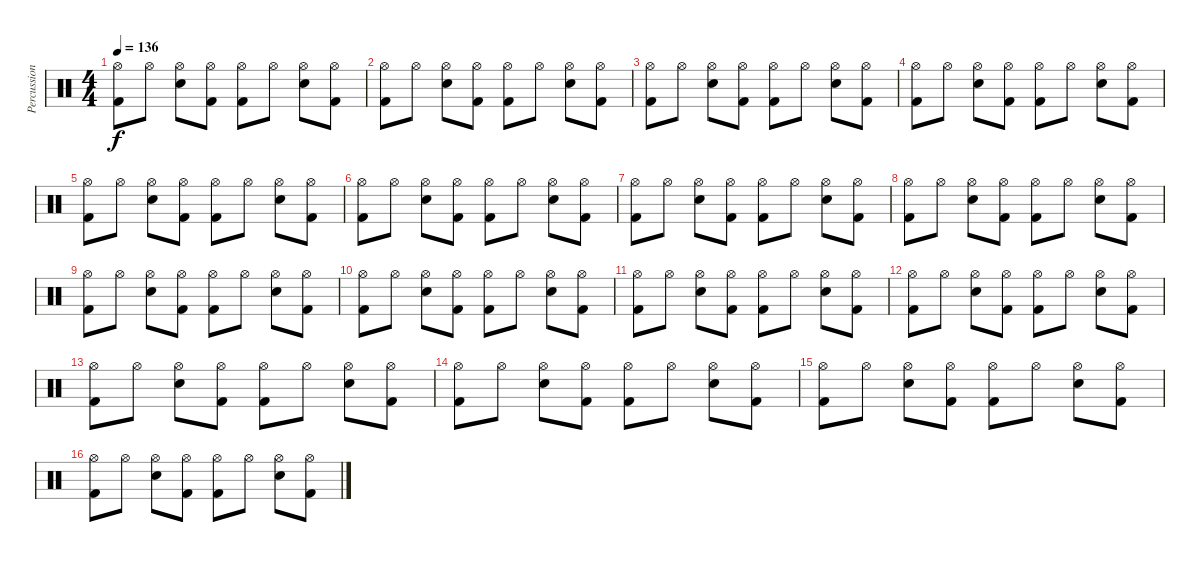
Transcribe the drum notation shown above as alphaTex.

\track ("Percussion" "Percussion") {instrument percussion}
\staff {score}
\articulation defaults
\ts (4 4)
\tempo 136
\clef neutral
\ks c
("Hi-Hat (open)" "Kick (hit) 2").8{dy f} "Hi-Hat (open)".8 ("Hi-Hat (open)" "Electric Snare (hit)").8 ("Hi-Hat (open)" "Kick (hit) 2").8 ("Hi-Hat (open)" "Kick (hit) 2").8 "Hi-Hat (open)".8 ("Hi-Hat (open)" "Electric Snare (hit)").8 ("Hi-Hat (open)" "Kick (hit) 2").8 |
("Hi-Hat (open)" "Kick (hit) 2").8 "Hi-Hat (open)".8 ("Hi-Hat (open)" "Electric Snare (hit)").8 ("Hi-Hat (open)" "Kick (hit) 2").8 ("Hi-Hat (open)" "Kick (hit) 2").8 "Hi-Hat (open)".8 ("Hi-Hat (open)" "Electric Snare (hit)").8 ("Hi-Hat (open)" "Kick (hit) 2").8 |
("Hi-Hat (open)" "Kick (hit) 2").8 "Hi-Hat (open)".8 ("Hi-Hat (open)" "Electric Snare (hit)").8 ("Hi-Hat (open)" "Kick (hit) 2").8 ("Hi-Hat (open)" "Kick (hit) 2").8 "Hi-Hat (open)".8 ("Hi-Hat (open)" "Electric Snare (hit)").8 ("Hi-Hat (open)" "Kick (hit) 2").8 |
("Hi-Hat (open)" "Kick (hit) 2").8 "Hi-Hat (open)".8 ("Hi-Hat (open)" "Electric Snare (hit)").8 ("Hi-Hat (open)" "Kick (hit) 2").8 ("Hi-Hat (open)" "Kick (hit) 2").8 "Hi-Hat (open)".8 ("Hi-Hat (open)" "Electric Snare (hit)").8 ("Hi-Hat (open)" "Kick (hit) 2").8 |
("Hi-Hat (open)" "Kick (hit) 2").8 "Hi-Hat (open)".8 ("Hi-Hat (open)" "Electric Snare (hit)").8 ("Hi-Hat (open)" "Kick (hit) 2").8 ("Hi-Hat (open)" "Kick (hit) 2").8 "Hi-Hat (open)".8 ("Hi-Hat (open)" "Electric Snare (hit)").8 ("Hi-Hat (open)" "Kick (hit) 2").8 |
("Hi-Hat (open)" "Kick (hit) 2").8 "Hi-Hat (open)".8 ("Hi-Hat (open)" "Electric Snare (hit)").8 ("Hi-Hat (open)" "Kick (hit) 2").8 ("Hi-Hat (open)" "Kick (hit) 2").8 "Hi-Hat (open)".8 ("Hi-Hat (open)" "Electric Snare (hit)").8 ("Hi-Hat (open)" "Kick (hit) 2").8 |
("Hi-Hat (open)" "Kick (hit) 2").8 "Hi-Hat (open)".8 ("Hi-Hat (open)" "Electric Snare (hit)").8 ("Hi-Hat (open)" "Kick (hit) 2").8 ("Hi-Hat (open)" "Kick (hit) 2").8 "Hi-Hat (open)".8 ("Hi-Hat (open)" "Electric Snare (hit)").8 ("Hi-Hat (open)" "Kick (hit) 2").8 |
("Hi-Hat (open)" "Kick (hit) 2").8 "Hi-Hat (open)".8 ("Hi-Hat (open)" "Electric Snare (hit)").8 ("Hi-Hat (open)" "Kick (hit) 2").8 ("Hi-Hat (open)" "Kick (hit) 2").8 "Hi-Hat (open)".8 ("Hi-Hat (open)" "Electric Snare (hit)").8 ("Hi-Hat (open)" "Kick (hit) 2").8 |
("Hi-Hat (open)" "Kick (hit) 2").8 "Hi-Hat (open)".8 ("Hi-Hat (open)" "Electric Snare (hit)").8 ("Hi-Hat (open)" "Kick (hit) 2").8 ("Hi-Hat (open)" "Kick (hit) 2").8 "Hi-Hat (open)".8 ("Hi-Hat (open)" "Electric Snare (hit)").8 ("Hi-Hat (open)" "Kick (hit) 2").8 |
("Hi-Hat (open)" "Kick (hit) 2").8 "Hi-Hat (open)".8 ("Hi-Hat (open)" "Electric Snare (hit)").8 ("Hi-Hat (open)" "Kick (hit) 2").8 ("Hi-Hat (open)" "Kick (hit) 2").8 "Hi-Hat (open)".8 ("Hi-Hat (open)" "Electric Snare (hit)").8 ("Hi-Hat (open)" "Kick (hit) 2").8 |
("Hi-Hat (open)" "Kick (hit) 2").8 "Hi-Hat (open)".8 ("Hi-Hat (open)" "Electric Snare (hit)").8 ("Hi-Hat (open)" "Kick (hit) 2").8 ("Hi-Hat (open)" "Kick (hit) 2").8 "Hi-Hat (open)".8 ("Hi-Hat (open)" "Electric Snare (hit)").8 ("Hi-Hat (open)" "Kick (hit) 2").8 |
("Hi-Hat (open)" "Kick (hit) 2").8 "Hi-Hat (open)".8 ("Hi-Hat (open)" "Electric Snare (hit)").8 ("Hi-Hat (open)" "Kick (hit) 2").8 ("Hi-Hat (open)" "Kick (hit) 2").8 "Hi-Hat (open)".8 ("Hi-Hat (open)" "Electric Snare (hit)").8 ("Hi-Hat (open)" "Kick (hit) 2").8 |
("Hi-Hat (open)" "Kick (hit) 2").8 "Hi-Hat (open)".8 ("Hi-Hat (open)" "Electric Snare (hit)").8 ("Hi-Hat (open)" "Kick (hit) 2").8 ("Hi-Hat (open)" "Kick (hit) 2").8 "Hi-Hat (open)".8 ("Hi-Hat (open)" "Electric Snare (hit)").8 ("Hi-Hat (open)" "Kick (hit) 2").8 |
("Hi-Hat (open)" "Kick (hit) 2").8 "Hi-Hat (open)".8 ("Hi-Hat (open)" "Electric Snare (hit)").8 ("Hi-Hat (open)" "Kick (hit) 2").8 ("Hi-Hat (open)" "Kick (hit) 2").8 "Hi-Hat (open)".8 ("Hi-Hat (open)" "Electric Snare (hit)").8 ("Hi-Hat (open)" "Kick (hit) 2").8 |
("Hi-Hat (open)" "Kick (hit) 2").8 "Hi-Hat (open)".8 ("Hi-Hat (open)" "Electric Snare (hit)").8 ("Hi-Hat (open)" "Kick (hit) 2").8 ("Hi-Hat (open)" "Kick (hit) 2").8 "Hi-Hat (open)".8 ("Hi-Hat (open)" "Electric Snare (hit)").8 ("Hi-Hat (open)" "Kick (hit) 2").8 |
("Hi-Hat (open)" "Kick (hit) 2").8 "Hi-Hat (open)".8 ("Hi-Hat (open)" "Electric Snare (hit)").8 ("Hi-Hat (open)" "Kick (hit) 2").8 ("Hi-Hat (open)" "Kick (hit) 2").8 "Hi-Hat (open)".8 ("Hi-Hat (open)" "Electric Snare (hit)").8 ("Hi-Hat (open)" "Kick (hit) 2").8
